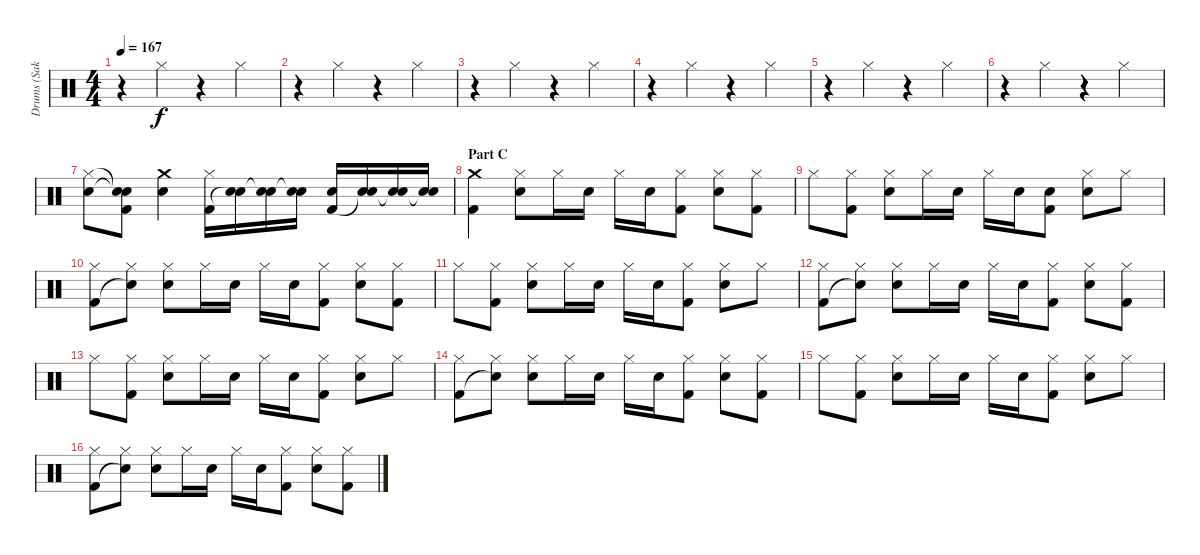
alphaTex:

\track ("Drums (Sakura)" "Drums (Sak") {instrument percussion}
\staff {score}
\articulation defaults
\ts (4 4)
\tempo 167
\clef neutral
\ks c
r.4{dy f} "Hi-Hat (closed)".4 r.4 "Hi-Hat (closed)".4 |
r.4 "Hi-Hat (closed)".4 r.4 "Hi-Hat (closed)".4 |
r.4 "Hi-Hat (closed)".4 r.4 "Hi-Hat (closed)".4 |
r.4 "Hi-Hat (closed)".4 r.4 "Hi-Hat (closed)".4 |
r.4 "Hi-Hat (closed)".4 r.4 "Hi-Hat (closed)".4 |
r.4 "Hi-Hat (closed)".4 r.4 "Hi-Hat (closed)".4 |
("Hi-Hat (closed)" "Electric Snare (hit)").8 ("Snare (hit)"{t} "Snare (hit)"{t} "Kick (hit) 2").8 ("Crash medium (hit)" "Electric Snare (hit)").4 ("Hi-Hat (closed)" "Kick (hit) 2").16 ("Electric Snare (hit)" "Snare (hit)"{t}).16 ("Electric Snare (hit)" "Snare (hit)"{t}).16 ("Electric Snare (hit)" "Snare (hit)"{t}).16 ("Electric Snare (hit)" "Kick (hit) 2").16 ("Electric Snare (hit)" "Snare (hit)"{t}).16 ("Electric Snare (hit)" "Snare (hit)"{t}).16 ("Electric Snare (hit)" "Snare (hit)"{t}).16 |
\section ("" "Part C")
("Crash medium (hit)" "Kick (hit) 2").4 ("Hi-Hat (closed)" "Electric Snare (hit)").8 "Hi-Hat (closed)".16 "Electric Snare (hit)".16 "Hi-Hat (closed)".16 "Electric Snare (hit)".16 ("Hi-Hat (closed)" "Kick (hit) 2").8 ("Hi-Hat (closed)" "Electric Snare (hit)").8 ("Hi-Hat (closed)" "Kick (hit) 2").8 |
"Hi-Hat (closed)".8 ("Hi-Hat (closed)" "Kick (hit) 2").8 ("Hi-Hat (closed)" "Electric Snare (hit)").8 "Hi-Hat (closed)".16 "Electric Snare (hit)".16 "Hi-Hat (closed)".16 "Electric Snare (hit)".16 ("Electric Snare (hit)" "Kick (hit) 2").8 ("Hi-Hat (closed)" "Electric Snare (hit)").8 "Hi-Hat (closed)".8 |
("Hi-Hat (closed)" "Kick (hit) 2").8 ("Hi-Hat (closed)" "Snare (hit)"{t}).8 ("Hi-Hat (closed)" "Electric Snare (hit)").8 "Hi-Hat (closed)".16 "Electric Snare (hit)".16 "Hi-Hat (closed)".16 "Electric Snare (hit)".16 ("Hi-Hat (closed)" "Kick (hit) 2").8 ("Hi-Hat (closed)" "Electric Snare (hit)").8 ("Hi-Hat (closed)" "Kick (hit) 2").8 |
"Hi-Hat (closed)".8 ("Hi-Hat (closed)" "Kick (hit) 2").8 ("Hi-Hat (closed)" "Electric Snare (hit)").8 "Hi-Hat (closed)".16 "Electric Snare (hit)".16 "Hi-Hat (closed)".16 "Electric Snare (hit)".16 ("Hi-Hat (closed)" "Kick (hit) 2").8 ("Hi-Hat (closed)" "Electric Snare (hit)").8 "Hi-Hat (closed)".8 |
("Hi-Hat (closed)" "Kick (hit) 2").8 ("Hi-Hat (closed)" "Snare (hit)"{t}).8 ("Hi-Hat (closed)" "Electric Snare (hit)").8 "Hi-Hat (closed)".16 "Electric Snare (hit)".16 "Hi-Hat (closed)".16 "Electric Snare (hit)".16 ("Hi-Hat (closed)" "Kick (hit) 2").8 ("Hi-Hat (closed)" "Electric Snare (hit)").8 ("Hi-Hat (closed)" "Kick (hit) 2").8 |
"Hi-Hat (closed)".8 ("Hi-Hat (closed)" "Kick (hit) 2").8 ("Hi-Hat (closed)" "Electric Snare (hit)").8 "Hi-Hat (closed)".16 "Electric Snare (hit)".16 "Hi-Hat (closed)".16 "Electric Snare (hit)".16 ("Hi-Hat (closed)" "Kick (hit) 2").8 ("Hi-Hat (closed)" "Electric Snare (hit)").8 "Hi-Hat (closed)".8 |
("Hi-Hat (closed)" "Kick (hit) 2").8 ("Hi-Hat (closed)" "Snare (hit)"{t}).8 ("Hi-Hat (closed)" "Electric Snare (hit)").8 "Hi-Hat (closed)".16 "Electric Snare (hit)".16 "Hi-Hat (closed)".16 "Electric Snare (hit)".16 ("Hi-Hat (closed)" "Kick (hit) 2").8 ("Hi-Hat (closed)" "Electric Snare (hit)").8 ("Hi-Hat (closed)" "Kick (hit) 2").8 |
"Hi-Hat (closed)".8 ("Hi-Hat (closed)" "Kick (hit) 2").8 ("Hi-Hat (closed)" "Electric Snare (hit)").8 "Hi-Hat (closed)".16 "Electric Snare (hit)".16 "Hi-Hat (closed)".16 "Electric Snare (hit)".16 ("Hi-Hat (closed)" "Kick (hit) 2").8 ("Hi-Hat (closed)" "Electric Snare (hit)").8 "Hi-Hat (closed)".8 |
("Hi-Hat (closed)" "Kick (hit) 2").8 ("Hi-Hat (closed)" "Snare (hit)"{t}).8 ("Hi-Hat (closed)" "Electric Snare (hit)").8 "Hi-Hat (closed)".16 "Electric Snare (hit)".16 "Hi-Hat (closed)".16 "Electric Snare (hit)".16 ("Hi-Hat (closed)" "Kick (hit) 2").8 ("Hi-Hat (closed)" "Electric Snare (hit)").8 ("Hi-Hat (closed)" "Kick (hit) 2").8
